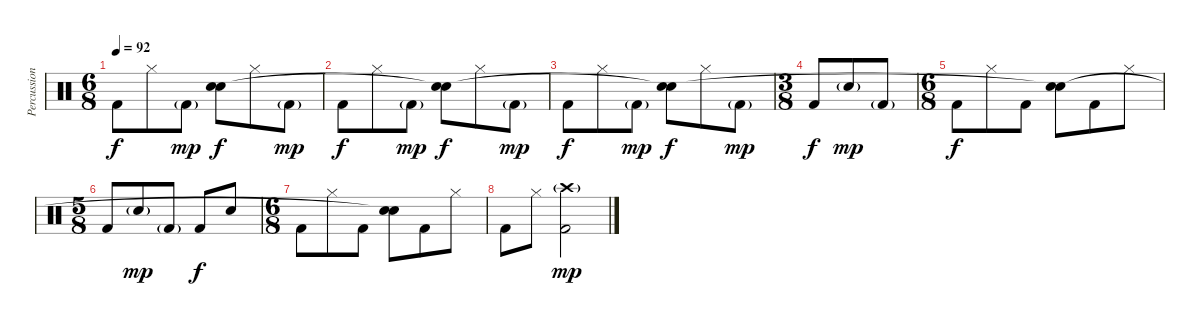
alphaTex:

\track ("Percussion" "Percussion") {instrument percussion}
\staff {score}
\articulation defaults
\ts (6 8)
\tempo 92
\clef neutral
\ks c "Kick (hit) 2".8{dy f} "Hi-Hat (closed)".8 "Kick (hit) 2"{g}.8{dy mp}
("Snare (hit) 2" "Snare (hit)"{t}).8{dy f} "Hi-Hat (closed)".8 "Kick (hit) 2"{g}.8{dy mp} |
"Kick (hit) 2".8{dy f} "Hi-Hat (closed)".8 "Kick (hit) 2"{g}.8{dy mp} ("Snare (hit) 2" "Snare (hit)"{t}).8{dy f} "Hi-Hat (closed)".8 "Kick (hit) 2"{g}.8{dy mp} |
"Kick (hit) 2".8{dy f} "Hi-Hat (closed)".8 "Kick (hit) 2"{g}.8{dy mp} ("Snare (hit) 2" "Snare (hit)"{t}).8{dy f} "Hi-Hat (closed)".8 "Kick (hit) 2"{g}.8{dy mp} |
\ts (3 8)
"Kick (hit) 2".8{dy f} "Snare (hit) 2"{g}.8{dy mp} "Kick (hit) 2"{g}.8 |
\ts (6 8)
"Kick (hit) 2".8{dy f} "Hi-Hat (closed)".8 "Kick (hit) 2".8 ("Snare (hit) 2" "Snare (hit)"{t}).8 "Kick (hit) 2".8 "Hi-Hat (closed)".8 |
\ts (5 8)
"Kick (hit) 2".8 "Snare (hit) 2"{g}.8{dy mp} "Kick (hit) 2"{g}.8 "Kick (hit) 2".8{dy f} "Snare (hit) 2".8 |
\ts (6 8)
"Kick (hit) 2".8 "Hi-Hat (closed)".8 "Kick (hit) 2".8 ("Snare (hit) 2" "Snare (hit)"{t}).8 "Kick (hit) 2".8 "Hi-Hat (closed)".8 |
"Kick (hit) 2".8 "Hi-Hat (closed)".8 ("Crash high (hit)"{g} "Kick (hit) 2").2{dy mp}
